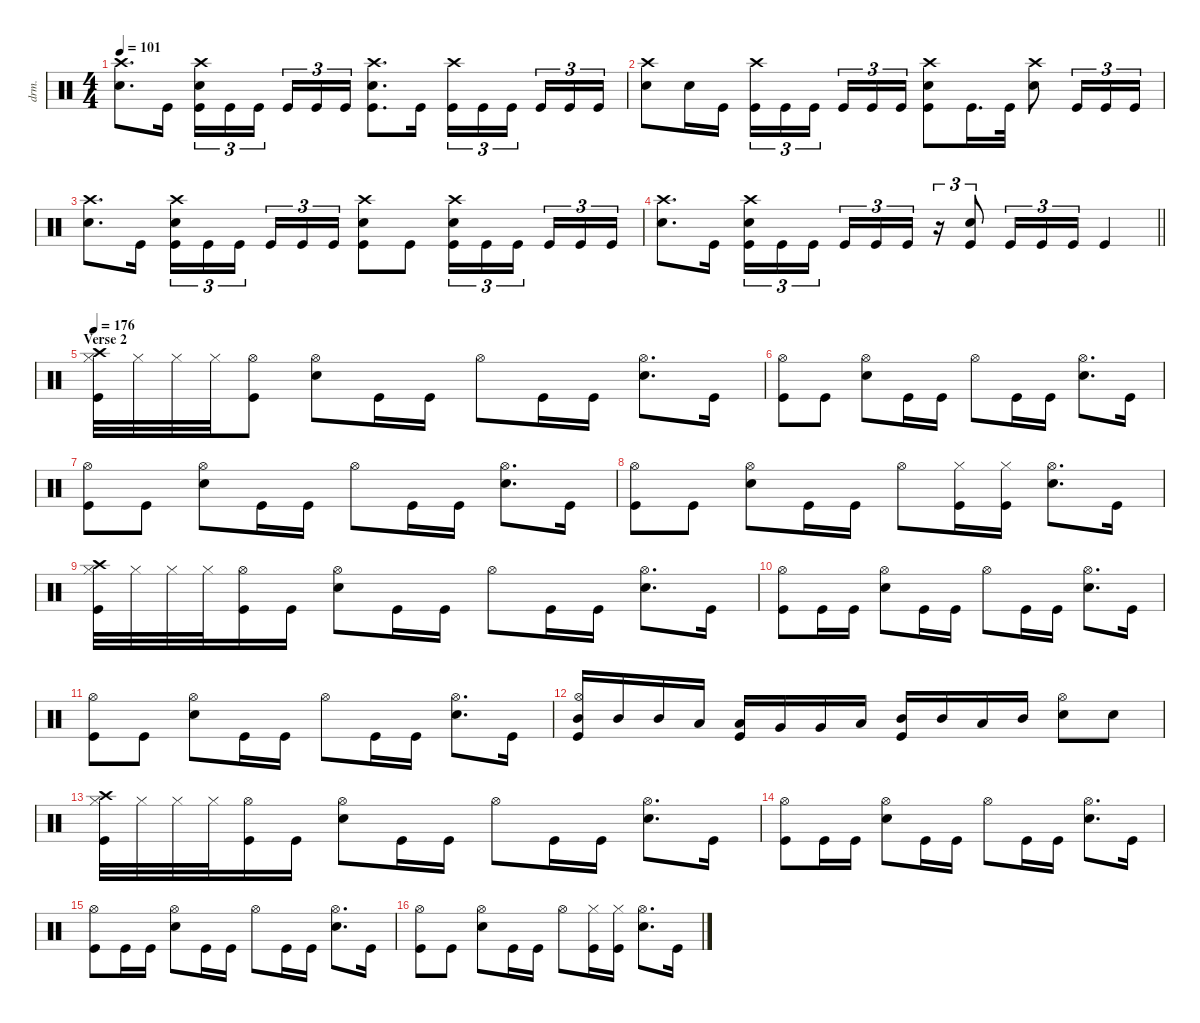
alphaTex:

\defaultSystemsLayout 4
\hideDynamics
\bracketExtendMode nobrackets
\track ("Gene Hoglan " "drm.") {instrument percussion}
\staff {score}
\articulation defaults
\ts (4 4)
\tempo 101
\clef neutral
\ks c
("Crash high (hit)" "Snare (hit) 2").8{d dy f} "Kick (hit)".16 ("Crash high (hit)" "Snare (hit) 2" "Kick (hit)").16{tu (3 2)} "Kick (hit)".16{tu (3 2)} "Kick (hit)".16{tu (3 2)} "Kick (hit)".16{tu (3 2)} "Kick (hit)".16{tu (3 2)} "Kick (hit)".16{tu (3 2)} ("Crash high (hit)" "Snare (hit) 2" "Kick (hit)").8{d} "Kick (hit)".16 ("Crash high (hit)" "Kick (hit)").16{tu (3 2)} "Kick (hit)".16{tu (3 2)} "Kick (hit)".16{tu (3 2)} "Kick (hit)".16{tu (3 2)} "Kick (hit)".16{tu (3 2)} "Kick (hit)".16{tu (3 2)} |
("Crash high (hit)" "Snare (hit) 2").8 "Snare (hit) 2".16 "Kick (hit)".16 ("Crash high (hit)" "Kick (hit)").16{tu (3 2)} "Kick (hit)".16{tu (3 2)} "Kick (hit)".16{tu (3 2)} "Kick (hit)".16{tu (3 2)} "Kick (hit)".16{tu (3 2)} "Kick (hit)".16{tu (3 2)} ("Crash high (hit)" "Snare (hit) 2" "Kick (hit)").8 "Kick (hit)".16{d} "Kick (hit)".32 ("Crash high (hit)" "Snare (hit) 2").8 "Kick (hit)".16{tu (3 2)} "Kick (hit)".16{tu (3 2)} "Kick (hit)".16{tu (3 2)} |
("Crash high (hit)" "Snare (hit) 2").8{d} "Kick (hit)".16 ("Crash high (hit)" "Snare (hit) 2" "Kick (hit)").16{tu (3 2)} "Kick (hit)".16{tu (3 2)} "Kick (hit)".16{tu (3 2)} "Kick (hit)".16{tu (3 2)} "Kick (hit)".16{tu (3 2)} "Kick (hit)".16{tu (3 2)} ("Crash high (hit)" "Snare (hit) 2" "Kick (hit)").8 "Kick (hit)".8 ("Crash high (hit)" "Snare (hit) 2" "Kick (hit)").16{tu (3 2)} "Kick (hit)".16{tu (3 2)} "Kick (hit)".16{tu (3 2)} "Kick (hit)".16{tu (3 2)} "Kick (hit)".16{tu (3 2)} "Kick (hit)".16{tu (3 2)} |
\barLineRight lightlight
("Crash high (hit)" "Snare (hit) 2").8{d} "Kick (hit)".16 ("Crash high (hit)" "Snare (hit) 2" "Kick (hit)").16{tu (3 2)} "Kick (hit)".16{tu (3 2)} "Kick (hit)".16{tu (3 2)} "Kick (hit)".16{tu (3 2)} "Kick (hit)".16{tu (3 2)} "Kick (hit)".16{tu (3 2)} r.16{tu (3 2)} ("Snare (hit) 2" "Kick (hit)").8{tu (3 2)} "Kick (hit)".16{tu (3 2)} "Kick (hit)".16{tu (3 2)} "Kick (hit)".16{tu (3 2)} "Kick (hit)".4 |
\section ("" "Verse 2")
\tempo 176
("Hi-Hat (closed)" "Crash high (hit)" "Kick (hit)").32 "Hi-Hat (closed)".32 "Hi-Hat (closed)".32 "Hi-Hat (closed)".32 ("Hi-Hat (open)" "Kick (hit)").8 ("Hi-Hat (open)" "Snare (hit) 2").8 "Kick (hit)".16 "Kick (hit)".16 "Hi-Hat (open)".8 "Kick (hit)".16 "Kick (hit)".16 ("Hi-Hat (open)" "Snare (hit) 2").8{d} "Kick (hit)".16 |
("Hi-Hat (open)" "Kick (hit)").8 "Kick (hit)".8 ("Hi-Hat (open)" "Snare (hit) 2").8 "Kick (hit)".16 "Kick (hit)".16 "Hi-Hat (open)".8 "Kick (hit)".16 "Kick (hit)".16 ("Hi-Hat (open)" "Snare (hit) 2").8{d} "Kick (hit)".16 |
("Hi-Hat (open)" "Kick (hit)").8 "Kick (hit)".8 ("Hi-Hat (open)" "Snare (hit) 2").8 "Kick (hit)".16 "Kick (hit)".16 "Hi-Hat (open)".8 "Kick (hit)".16 "Kick (hit)".16 ("Hi-Hat (open)" "Snare (hit) 2").8{d} "Kick (hit)".16 |
("Hi-Hat (open)" "Kick (hit)").8 "Kick (hit)".8 ("Hi-Hat (open)" "Snare (hit) 2").8 "Kick (hit)".16 "Kick (hit)".16 "Hi-Hat (open)".8 ("Hi-Hat (closed)" "Kick (hit)").16 ("Hi-Hat (closed)" "Kick (hit)").16 ("Hi-Hat (open)" "Snare (hit) 2").8{d} "Kick (hit)".16 |
("Hi-Hat (closed)" "Crash high (hit)" "Kick (hit)").32 "Hi-Hat (closed)".32 "Hi-Hat (closed)".32 "Hi-Hat (closed)".32 ("Hi-Hat (open)" "Kick (hit)").16 "Kick (hit)".16 ("Hi-Hat (open)" "Snare (hit) 2").8 "Kick (hit)".16 "Kick (hit)".16 "Hi-Hat (open)".8 "Kick (hit)".16 "Kick (hit)".16 ("Hi-Hat (open)" "Snare (hit) 2").8{d} "Kick (hit)".16 |
("Hi-Hat (open)" "Kick (hit)").8 "Kick (hit)".16 "Kick (hit)".16 ("Hi-Hat (open)" "Snare (hit) 2").8 "Kick (hit)".16 "Kick (hit)".16 "Hi-Hat (open)".8 "Kick (hit)".16 "Kick (hit)".16 ("Hi-Hat (open)" "Snare (hit) 2").8{d} "Kick (hit)".16 |
("Hi-Hat (open)" "Kick (hit)").8 "Kick (hit)".8 ("Hi-Hat (open)" "Snare (hit) 2").8 "Kick (hit)".16 "Kick (hit)".16 "Hi-Hat (open)".8 "Kick (hit)".16 "Kick (hit)".16 ("Hi-Hat (open)" "Snare (hit) 2").8{d} "Kick (hit)".16 |
("Hi-Hat (open)" "Mid Tom (hit)" "Kick (hit)").16 "Mid Tom (hit)".16 "Mid Tom (hit)".16 "Low Tom (hit)".16 ("Low Tom (hit)" "Kick (hit)").16 "Very Low Tom (hit)".16 "Very Low Tom (hit)".16 "Low Tom (hit)".16 ("Mid Tom (hit)" "Kick (hit)").16 "Mid Tom (hit)".16 "Low Tom (hit)".16 "Mid Tom (hit)".16 ("Hi-Hat (open)" "Snare (hit) 2").8 "Snare (hit) 2".8 |
("Hi-Hat (closed)" "Crash high (hit)" "Kick (hit)").32 "Hi-Hat (closed)".32 "Hi-Hat (closed)".32 "Hi-Hat (closed)".32 ("Hi-Hat (open)" "Kick (hit)").16 "Kick (hit)".16 ("Hi-Hat (open)" "Snare (hit) 2").8 "Kick (hit)".16 "Kick (hit)".16 "Hi-Hat (open)".8 "Kick (hit)".16 "Kick (hit)".16 ("Hi-Hat (open)" "Snare (hit) 2").8{d} "Kick (hit)".16 |
("Hi-Hat (open)" "Kick (hit)").8 "Kick (hit)".16 "Kick (hit)".16 ("Hi-Hat (open)" "Snare (hit) 2").8 "Kick (hit)".16 "Kick (hit)".16 "Hi-Hat (open)".8 "Kick (hit)".16 "Kick (hit)".16 ("Hi-Hat (open)" "Snare (hit) 2").8{d} "Kick (hit)".16 |
("Hi-Hat (open)" "Kick (hit)").8 "Kick (hit)".16 "Kick (hit)".16 ("Hi-Hat (open)" "Snare (hit) 2").8 "Kick (hit)".16 "Kick (hit)".16 "Hi-Hat (open)".8 "Kick (hit)".16 "Kick (hit)".16 ("Hi-Hat (open)" "Snare (hit) 2").8{d} "Kick (hit)".16 |
("Hi-Hat (open)" "Kick (hit)").8 "Kick (hit)".8 ("Hi-Hat (open)" "Snare (hit) 2").8 "Kick (hit)".16 "Kick (hit)".16 "Hi-Hat (open)".8 ("Hi-Hat (closed)" "Kick (hit)").16 ("Hi-Hat (closed)" "Kick (hit)").16 ("Hi-Hat (open)" "Snare (hit) 2").8{d} "Kick (hit)".16
